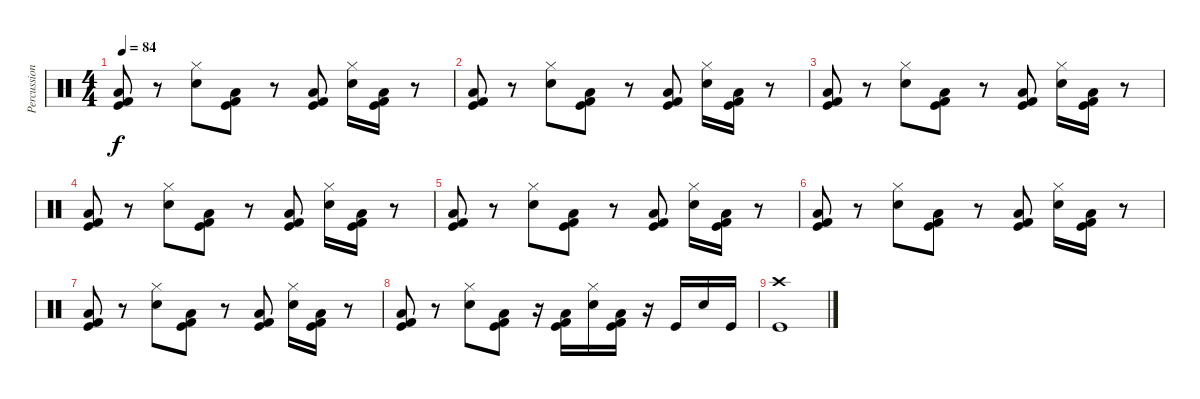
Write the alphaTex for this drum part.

\track ("Percussion" "Percussion") {instrument percussion}
\staff {score}
\articulation defaults
\ts (4 4)
\tempo 84
\clef neutral
\ks c
("Kick (hit) 2" "Low Floor Tom (hit)" "Kick (hit)").8{dy f} r.8 ("Hi-Hat (closed)" "Electric Snare (hit)").8 ("Kick (hit) 2" "Low Floor Tom (hit)" "Kick (hit)").8 r.8 ("Kick (hit) 2" "Low Floor Tom (hit)" "Kick (hit)").8 ("Hi-Hat (closed)" "Electric Snare (hit)").16 ("Kick (hit) 2" "Low Floor Tom (hit)" "Kick (hit)").16 r.8 |
("Kick (hit) 2" "Low Floor Tom (hit)" "Kick (hit)").8 r.8 ("Hi-Hat (closed)" "Electric Snare (hit)").8 ("Kick (hit) 2" "Low Floor Tom (hit)" "Kick (hit)").8 r.8 ("Kick (hit) 2" "Low Floor Tom (hit)" "Kick (hit)").8 ("Hi-Hat (closed)" "Electric Snare (hit)").16 ("Kick (hit) 2" "Low Floor Tom (hit)" "Kick (hit)").16 r.8 |
("Kick (hit) 2" "Low Floor Tom (hit)" "Kick (hit)").8 r.8 ("Hi-Hat (closed)" "Electric Snare (hit)").8 ("Kick (hit) 2" "Low Floor Tom (hit)" "Kick (hit)").8 r.8 ("Kick (hit) 2" "Low Floor Tom (hit)" "Kick (hit)").8 ("Hi-Hat (closed)" "Electric Snare (hit)").16 ("Kick (hit) 2" "Low Floor Tom (hit)" "Kick (hit)").16 r.8 |
("Kick (hit) 2" "Low Floor Tom (hit)" "Kick (hit)").8 r.8 ("Hi-Hat (closed)" "Electric Snare (hit)").8 ("Kick (hit) 2" "Low Floor Tom (hit)" "Kick (hit)").8 r.8 ("Kick (hit) 2" "Low Floor Tom (hit)" "Kick (hit)").8 ("Hi-Hat (closed)" "Electric Snare (hit)").16 ("Kick (hit) 2" "Low Floor Tom (hit)" "Kick (hit)").16 r.8 |
("Kick (hit) 2" "Low Floor Tom (hit)" "Kick (hit)").8 r.8 ("Hi-Hat (closed)" "Electric Snare (hit)").8 ("Kick (hit) 2" "Low Floor Tom (hit)" "Kick (hit)").8 r.8 ("Kick (hit) 2" "Low Floor Tom (hit)" "Kick (hit)").8 ("Hi-Hat (closed)" "Electric Snare (hit)").16 ("Kick (hit) 2" "Low Floor Tom (hit)" "Kick (hit)").16 r.8 |
("Kick (hit) 2" "Low Floor Tom (hit)" "Kick (hit)").8 r.8 ("Hi-Hat (closed)" "Electric Snare (hit)").8 ("Kick (hit) 2" "Low Floor Tom (hit)" "Kick (hit)").8 r.8 ("Kick (hit) 2" "Low Floor Tom (hit)" "Kick (hit)").8 ("Hi-Hat (closed)" "Electric Snare (hit)").16 ("Kick (hit) 2" "Low Floor Tom (hit)" "Kick (hit)").16 r.8 |
("Kick (hit) 2" "Low Floor Tom (hit)" "Kick (hit)").8 r.8 ("Hi-Hat (closed)" "Electric Snare (hit)").8 ("Kick (hit) 2" "Low Floor Tom (hit)" "Kick (hit)").8 r.8 ("Kick (hit) 2" "Low Floor Tom (hit)" "Kick (hit)").8 ("Hi-Hat (closed)" "Electric Snare (hit)").16 ("Kick (hit) 2" "Low Floor Tom (hit)" "Kick (hit)").16 r.8 |
("Kick (hit) 2" "Low Floor Tom (hit)" "Kick (hit)").8 r.8 ("Hi-Hat (closed)" "Electric Snare (hit)").8 ("Kick (hit) 2" "Low Floor Tom (hit)" "Kick (hit)").8 r.16 ("Kick (hit) 2" "Low Floor Tom (hit)" "Kick (hit)").16 ("Hi-Hat (closed)" "Electric Snare (hit)").16 ("Kick (hit) 2" "Low Floor Tom (hit)" "Kick (hit)").16 r.16 "Kick (hit)".16 "Electric Snare (hit)".16 "Kick (hit)".16 |
("Crash high (hit)" "Kick (hit)").1
